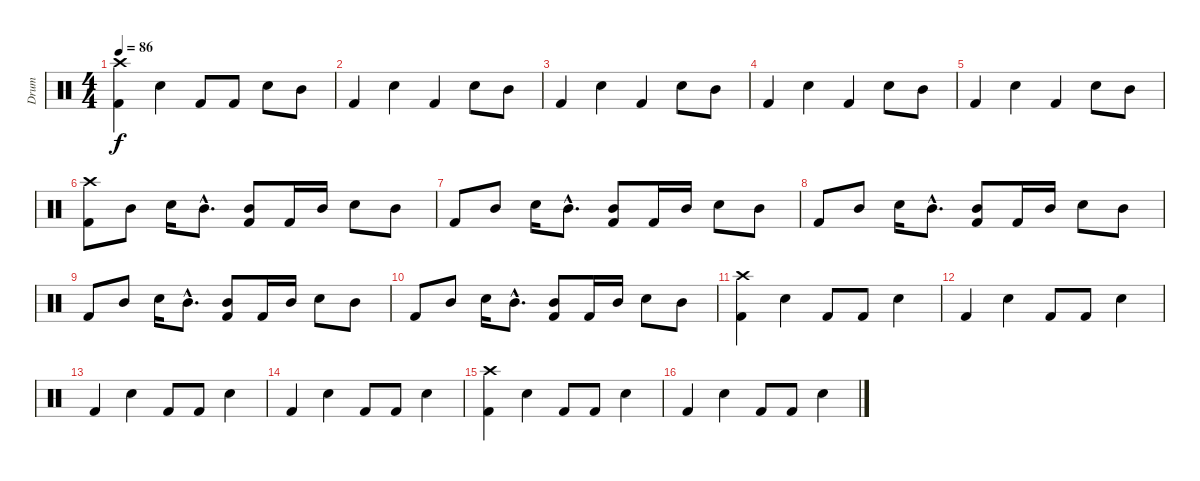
\track ("Drum" "Drum") {instrument percussion}
\staff {score}
\articulation defaults
\ts (4 4)
\tempo 86
\clef neutral
\ks c
("Crash high (hit)" "Kick (hit) 2").4{dy f} "Electric Snare (hit)".4 "Kick (hit) 2".8 "Kick (hit) 2".8 "Electric Snare (hit)".8 "Mid Tom (hit)".8 |
"Kick (hit) 2".4 "Electric Snare (hit)".4 "Kick (hit) 2".4 "Electric Snare (hit)".8 "Mid Tom (hit)".8 |
"Kick (hit) 2".4 "Electric Snare (hit)".4 "Kick (hit) 2".4 "Electric Snare (hit)".8 "Mid Tom (hit)".8 |
"Kick (hit) 2".4 "Electric Snare (hit)".4 "Kick (hit) 2".4 "Electric Snare (hit)".8 "Mid Tom (hit)".8 |
"Kick (hit) 2".4 "Electric Snare (hit)".4 "Kick (hit) 2".4 "Electric Snare (hit)".8 "Mid Tom (hit)".8 |
("Crash high (hit)" "Kick (hit) 2").8 "Mid Tom (hit)".8 "Electric Snare (hit)".16 "Mid Tom (hit)"{hac}.8{d} ("Mid Tom (hit)" "Kick (hit) 2").8 "Kick (hit) 2".16 "Mid Tom (hit)".16 "Electric Snare (hit)".8 "Mid Tom (hit)".8 |
"Kick (hit) 2".8 "Mid Tom (hit)".8 "Electric Snare (hit)".16 "Mid Tom (hit)"{hac}.8{d} ("Mid Tom (hit)" "Kick (hit) 2").8 "Kick (hit) 2".16 "Mid Tom (hit)".16 "Electric Snare (hit)".8 "Mid Tom (hit)".8 |
"Kick (hit) 2".8 "Mid Tom (hit)".8 "Electric Snare (hit)".16 "Mid Tom (hit)"{hac}.8{d} ("Mid Tom (hit)" "Kick (hit) 2").8 "Kick (hit) 2".16 "Mid Tom (hit)".16 "Electric Snare (hit)".8 "Mid Tom (hit)".8 |
"Kick (hit) 2".8 "Mid Tom (hit)".8 "Electric Snare (hit)".16 "Mid Tom (hit)"{hac}.8{d} ("Mid Tom (hit)" "Kick (hit) 2").8 "Kick (hit) 2".16 "Mid Tom (hit)".16 "Electric Snare (hit)".8 "Mid Tom (hit)".8 |
"Kick (hit) 2".8 "Mid Tom (hit)".8 "Electric Snare (hit)".16 "Mid Tom (hit)"{hac}.8{d} ("Mid Tom (hit)" "Kick (hit) 2").8 "Kick (hit) 2".16 "Mid Tom (hit)".16 "Electric Snare (hit)".8 "Mid Tom (hit)".8 |
("Crash high (hit)" "Kick (hit) 2").4 "Electric Snare (hit)".4 "Kick (hit) 2".8 "Kick (hit) 2".8 "Electric Snare (hit)".4 |
"Kick (hit) 2".4 "Electric Snare (hit)".4 "Kick (hit) 2".8 "Kick (hit) 2".8 "Electric Snare (hit)".4 |
"Kick (hit) 2".4 "Electric Snare (hit)".4 "Kick (hit) 2".8 "Kick (hit) 2".8 "Electric Snare (hit)".4 |
"Kick (hit) 2".4 "Electric Snare (hit)".4 "Kick (hit) 2".8 "Kick (hit) 2".8 "Electric Snare (hit)".4 |
("Crash high (hit)" "Kick (hit) 2").4 "Electric Snare (hit)".4 "Kick (hit) 2".8 "Kick (hit) 2".8 "Electric Snare (hit)".4 |
"Kick (hit) 2".4 "Electric Snare (hit)".4 "Kick (hit) 2".8 "Kick (hit) 2".8 "Electric Snare (hit)".4
